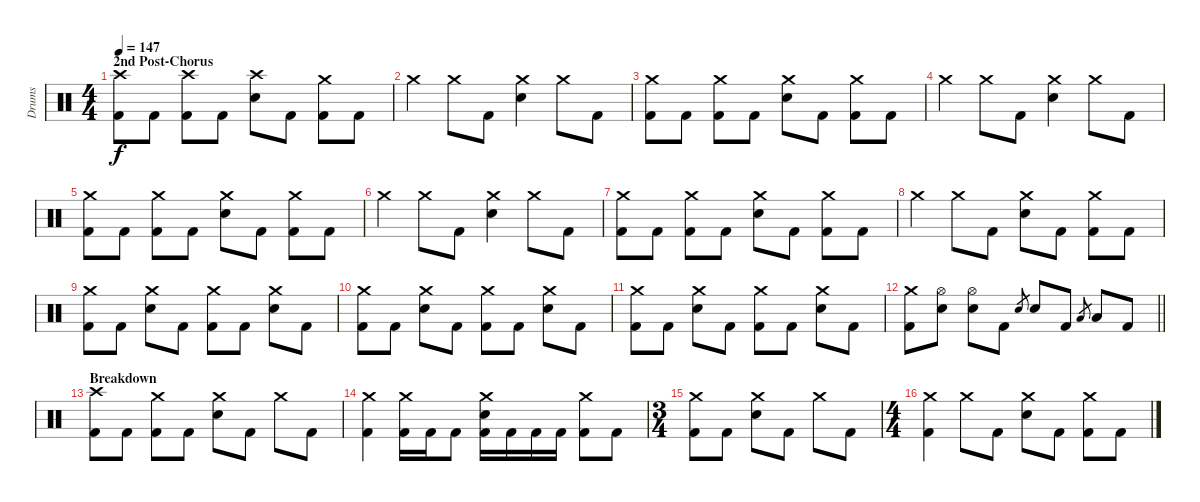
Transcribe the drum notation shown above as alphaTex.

\track ("Drums" "Drums") {instrument percussion}
\staff {score}
\articulation defaults
\ts (4 4)
\section ("" "2nd Post-Chorus")
\tempo 147
\clef neutral
\ks c
("Crash high (hit)" "Kick (hit) 2").8{dy f} "Kick (hit) 2".8 ("Crash high (hit)" "Kick (hit) 2").8 "Kick (hit) 2".8 ("Crash high (hit)" "Snare (hit) 2").8 "Kick (hit) 2".8 ("Crash medium (hit)" "Kick (hit) 2").8 "Kick (hit) 2".8 |
"Crash medium (hit)".4 "Crash medium (hit)".8 "Kick (hit) 2".8 ("Crash medium (hit)" "Snare (hit) 2").4 "Crash medium (hit)".8 "Kick (hit) 2".8 |
("Crash medium (hit)" "Kick (hit) 2").8 "Kick (hit) 2".8 ("Crash medium (hit)" "Kick (hit) 2").8 "Kick (hit) 2".8 ("Crash medium (hit)" "Snare (hit) 2").8 "Kick (hit) 2".8 ("Crash medium (hit)" "Kick (hit) 2").8 "Kick (hit) 2".8 |
"Crash medium (hit)".4 "Crash medium (hit)".8 "Kick (hit) 2".8 ("Crash medium (hit)" "Snare (hit) 2").4 "Crash medium (hit)".8 "Kick (hit) 2".8 |
("Crash medium (hit)" "Kick (hit) 2").8 "Kick (hit) 2".8 ("Crash medium (hit)" "Kick (hit) 2").8 "Kick (hit) 2".8 ("Crash medium (hit)" "Snare (hit) 2").8 "Kick (hit) 2".8 ("Crash medium (hit)" "Kick (hit) 2").8 "Kick (hit) 2".8 |
"Crash medium (hit)".4 "Crash medium (hit)".8 "Kick (hit) 2".8 ("Crash medium (hit)" "Snare (hit) 2").4 "Crash medium (hit)".8 "Kick (hit) 2".8 |
("Crash medium (hit)" "Kick (hit) 2").8 "Kick (hit) 2".8 ("Crash medium (hit)" "Kick (hit) 2").8 "Kick (hit) 2".8 ("Crash medium (hit)" "Snare (hit) 2").8 "Kick (hit) 2".8 ("Crash medium (hit)" "Kick (hit) 2").8 "Kick (hit) 2".8 |
"Crash medium (hit)".4 "Crash medium (hit)".8 "Kick (hit) 2".8 ("Crash medium (hit)" "Snare (hit) 2").8 "Kick (hit) 2".8 ("Crash medium (hit)" "Kick (hit) 2").8 "Kick (hit) 2".8 |
("Crash medium (hit)" "Kick (hit) 2").8 "Kick (hit) 2".8 ("Crash medium (hit)" "Snare (hit) 2").8 "Kick (hit) 2".8 ("Crash medium (hit)" "Kick (hit) 2").8 "Kick (hit) 2".8 ("Crash medium (hit)" "Snare (hit) 2").8 "Kick (hit) 2".8 |
("Crash medium (hit)" "Kick (hit) 2").8 "Kick (hit) 2".8 ("Crash medium (hit)" "Snare (hit) 2").8 "Kick (hit) 2".8 ("Crash medium (hit)" "Kick (hit) 2").8 "Kick (hit) 2".8 ("Crash medium (hit)" "Snare (hit) 2").8 "Kick (hit) 2".8 |
("Crash medium (hit)" "Kick (hit) 2").8 "Kick (hit) 2".8 ("Crash medium (hit)" "Snare (hit) 2").8 "Kick (hit) 2".8 ("Crash medium (hit)" "Kick (hit) 2").8 "Kick (hit) 2".8 ("Crash medium (hit)" "Snare (hit) 2").8 "Kick (hit) 2".8 |
\barLineRight lightlight
("Crash medium (hit)" "Kick (hit) 2").8 ("Hi-Hat (open)" "Snare (hit) 2").8 ("Hi-Hat (open)" "Snare (hit) 2").8 "Kick (hit) 2".8 "Snare (hit) 2".8{gr} "Snare (hit) 2".8 "Kick (hit) 2".8 "Low Floor Tom (hit)".8{gr} "Low Floor Tom (hit)".8 "Kick (hit) 2".8 |
\section ("" "Breakdown")
("Crash high (hit)" "Kick (hit) 2").8 "Kick (hit) 2".8 ("Crash medium (hit)" "Kick (hit) 2").8 "Kick (hit) 2".8 ("Crash medium (hit)" "Snare (hit) 2").8 "Kick (hit) 2".8 "Crash medium (hit)".8 "Kick (hit) 2".8 |
("Crash medium (hit)" "Kick (hit) 2").4 ("Crash medium (hit)" "Kick (hit) 2").16 "Kick (hit) 2".16 "Kick (hit) 2".8 ("Crash medium (hit)" "Snare (hit) 2" "Kick (hit) 2").16 "Kick (hit) 2".16 "Kick (hit) 2".16 "Kick (hit) 2".16 ("Crash medium (hit)" "Kick (hit) 2").8 "Kick (hit) 2".8 |
\ts (3 4)
("Crash medium (hit)" "Kick (hit) 2").8 "Kick (hit) 2".8 ("Crash medium (hit)" "Snare (hit) 2").8 "Kick (hit) 2".8 "Crash medium (hit)".8 "Kick (hit) 2".8 |
\ts (4 4)
("Crash medium (hit)" "Kick (hit) 2").4 "Crash medium (hit)".8 "Kick (hit) 2".8 ("Crash medium (hit)" "Snare (hit) 2").8 "Kick (hit) 2".8 ("Crash medium (hit)" "Kick (hit) 2").8 "Kick (hit) 2".8
